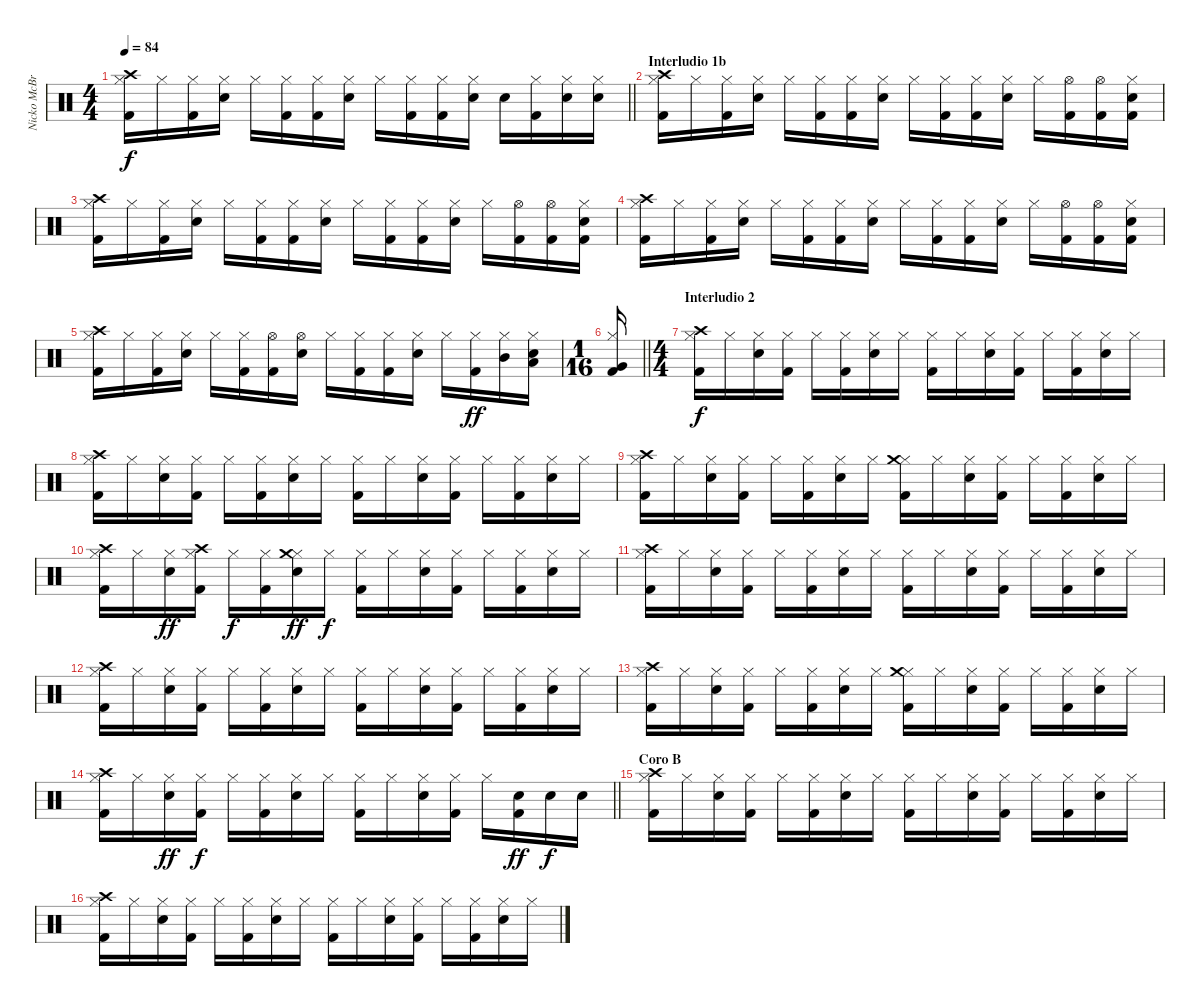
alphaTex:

\track ("Nicko McBrain" "Nicko McBr") {instrument percussion}
\staff {score}
\articulation defaults
\ts (4 4)
\tempo 84
\clef neutral
\barLineRight lightlight
\ks c
("Kick (hit) 2" "Hi-Hat (closed)" "Crash high (hit)").16{dy f} "Hi-Hat (closed)".16 ("Kick (hit) 2" "Hi-Hat (closed)").16 ("Snare (hit) 2" "Hi-Hat (closed)").16 "Hi-Hat (closed)".16 ("Kick (hit) 2" "Hi-Hat (closed)").16 ("Kick (hit) 2" "Hi-Hat (closed)").16 ("Snare (hit) 2" "Hi-Hat (closed)").16 "Hi-Hat (closed)".16 ("Kick (hit) 2" "Hi-Hat (closed)").16 ("Kick (hit) 2" "Hi-Hat (closed)").16 ("Snare (hit) 2" "Hi-Hat (closed)").16 "Snare (hit) 2".16 ("Kick (hit) 2" "Hi-Hat (closed)").16 ("Snare (hit) 2" "Hi-Hat (closed)").16 ("Snare (hit) 2" "Hi-Hat (closed)").16 |
\section ("" "Interludio 1b")
("Kick (hit) 2" "Hi-Hat (closed)" "Crash high (hit)").16 "Hi-Hat (closed)".16 ("Kick (hit) 2" "Hi-Hat (closed)").16 ("Snare (hit) 2" "Hi-Hat (closed)").16 "Hi-Hat (closed)".16 ("Kick (hit) 2" "Hi-Hat (closed)").16 ("Kick (hit) 2" "Hi-Hat (closed)").16 ("Snare (hit) 2" "Hi-Hat (closed)").16 "Hi-Hat (closed)".16 ("Kick (hit) 2" "Hi-Hat (closed)").16 ("Kick (hit) 2" "Hi-Hat (closed)").16 ("Snare (hit) 2" "Hi-Hat (closed)").16 "Hi-Hat (closed)".16 ("Kick (hit) 2" "Hi-Hat (open)").16 ("Kick (hit) 2" "Hi-Hat (open)").16 ("Snare (hit) 2" "Hi-Hat (closed)" "Kick (hit) 2").16 |
("Kick (hit) 2" "Hi-Hat (closed)" "Crash high (hit)").16 "Hi-Hat (closed)".16 ("Kick (hit) 2" "Hi-Hat (closed)").16 ("Snare (hit) 2" "Hi-Hat (closed)").16 "Hi-Hat (closed)".16 ("Kick (hit) 2" "Hi-Hat (closed)").16 ("Kick (hit) 2" "Hi-Hat (closed)").16 ("Snare (hit) 2" "Hi-Hat (closed)").16 "Hi-Hat (closed)".16 ("Kick (hit) 2" "Hi-Hat (closed)").16 ("Kick (hit) 2" "Hi-Hat (closed)").16 ("Snare (hit) 2" "Hi-Hat (closed)").16 "Hi-Hat (closed)".16 ("Kick (hit) 2" "Hi-Hat (open)").16 ("Kick (hit) 2" "Hi-Hat (open)").16 ("Snare (hit) 2" "Hi-Hat (closed)" "Kick (hit) 2").16 |
("Kick (hit) 2" "Hi-Hat (closed)" "Crash high (hit)").16 "Hi-Hat (closed)".16 ("Kick (hit) 2" "Hi-Hat (closed)").16 ("Snare (hit) 2" "Hi-Hat (closed)").16 "Hi-Hat (closed)".16 ("Kick (hit) 2" "Hi-Hat (closed)").16 ("Kick (hit) 2" "Hi-Hat (closed)").16 ("Snare (hit) 2" "Hi-Hat (closed)").16 "Hi-Hat (closed)".16 ("Kick (hit) 2" "Hi-Hat (closed)").16 ("Kick (hit) 2" "Hi-Hat (closed)").16 ("Snare (hit) 2" "Hi-Hat (closed)").16 "Hi-Hat (closed)".16 ("Kick (hit) 2" "Hi-Hat (open)").16 ("Kick (hit) 2" "Hi-Hat (open)").16 ("Snare (hit) 2" "Hi-Hat (closed)" "Kick (hit) 2").16 |
("Kick (hit) 2" "Hi-Hat (closed)" "Crash high (hit)").16 "Hi-Hat (closed)".16 ("Kick (hit) 2" "Hi-Hat (closed)").16 ("Snare (hit) 2" "Hi-Hat (closed)").16 "Hi-Hat (closed)".16 ("Kick (hit) 2" "Hi-Hat (closed)").16 ("Kick (hit) 2" "Hi-Hat (open)").16 ("Snare (hit) 2" "Hi-Hat (open)").16 "Hi-Hat (closed)".16 ("Kick (hit) 2" "Hi-Hat (closed)").16 ("Kick (hit) 2" "Hi-Hat (closed)").16 ("Snare (hit) 2" "Hi-Hat (closed)").16 "Hi-Hat (closed)".16 ("Kick (hit) 2" "Hi-Hat (closed)").16{dy ff} ("Hi-Hat (closed)" "Mid Tom (hit)").16 ("Snare (hit) 2" "Hi-Hat (closed)" "Low Tom (hit)").16 |
\ts (1 16)
\barLineRight lightlight
("Hi-Hat (closed)" "Kick (hit) 2" "Very Low Tom (hit)").16 |
\ts (4 4)
\section ("" "Interludio 2")
("Kick (hit) 2" "Hi-Hat (closed)" "Crash high (hit)").16{dy f} "Hi-Hat (closed)".16 ("Snare (hit) 2" "Hi-Hat (closed)").16 ("Kick (hit) 2" "Hi-Hat (closed)").16 "Hi-Hat (closed)".16 ("Kick (hit) 2" "Hi-Hat (closed)").16 ("Snare (hit) 2" "Hi-Hat (closed)").16 "Hi-Hat (closed)".16 ("Kick (hit) 2" "Hi-Hat (closed)").16 "Hi-Hat (closed)".16 ("Snare (hit) 2" "Hi-Hat (closed)").16 ("Kick (hit) 2" "Hi-Hat (closed)").16 "Hi-Hat (closed)".16 ("Kick (hit) 2" "Hi-Hat (closed)").16 ("Snare (hit) 2" "Hi-Hat (closed)").16 "Hi-Hat (closed)".16 |
("Kick (hit) 2" "Hi-Hat (closed)" "Crash high (hit)").16 "Hi-Hat (closed)".16 ("Snare (hit) 2" "Hi-Hat (closed)").16 ("Kick (hit) 2" "Hi-Hat (closed)").16 "Hi-Hat (closed)".16 ("Kick (hit) 2" "Hi-Hat (closed)").16 ("Snare (hit) 2" "Hi-Hat (closed)").16 "Hi-Hat (closed)".16 ("Kick (hit) 2" "Hi-Hat (closed)").16 "Hi-Hat (closed)".16 ("Snare (hit) 2" "Hi-Hat (closed)").16 ("Kick (hit) 2" "Hi-Hat (closed)").16 "Hi-Hat (closed)".16 ("Kick (hit) 2" "Hi-Hat (closed)").16 ("Snare (hit) 2" "Hi-Hat (closed)").16 "Hi-Hat (closed)".16 |
("Kick (hit) 2" "Hi-Hat (closed)" "Crash high (hit)").16 "Hi-Hat (closed)".16 ("Snare (hit) 2" "Hi-Hat (closed)").16 ("Kick (hit) 2" "Hi-Hat (closed)").16 "Hi-Hat (closed)".16 ("Kick (hit) 2" "Hi-Hat (closed)").16 ("Snare (hit) 2" "Hi-Hat (closed)").16 "Hi-Hat (closed)".16 ("Kick (hit) 2" "Hi-Hat (closed)" "Crash medium (hit)").16 "Hi-Hat (closed)".16 ("Snare (hit) 2" "Hi-Hat (closed)").16 ("Kick (hit) 2" "Hi-Hat (closed)").16 "Hi-Hat (closed)".16 ("Kick (hit) 2" "Hi-Hat (closed)").16 ("Snare (hit) 2" "Hi-Hat (closed)").16 "Hi-Hat (closed)".16 |
("Kick (hit) 2" "Hi-Hat (closed)" "Crash high (hit)").16 "Hi-Hat (closed)".16 ("Snare (hit) 2" "Hi-Hat (closed)").16{dy ff} ("Kick (hit) 2" "Hi-Hat (closed)" "Crash high (hit)").16 "Hi-Hat (closed)".16{dy f} ("Kick (hit) 2" "Hi-Hat (closed)").16 ("Snare (hit) 2" "Hi-Hat (closed)" "Crash medium (hit)").16{dy ff} "Hi-Hat (closed)".16{dy f} ("Kick (hit) 2" "Hi-Hat (closed)").16 "Hi-Hat (closed)".16 ("Snare (hit) 2" "Hi-Hat (closed)").16 ("Kick (hit) 2" "Hi-Hat (closed)").16 "Hi-Hat (closed)".16 ("Kick (hit) 2" "Hi-Hat (closed)").16 ("Snare (hit) 2" "Hi-Hat (closed)").16 "Hi-Hat (closed)".16 |
("Kick (hit) 2" "Hi-Hat (closed)" "Crash high (hit)").16 "Hi-Hat (closed)".16 ("Snare (hit) 2" "Hi-Hat (closed)").16 ("Kick (hit) 2" "Hi-Hat (closed)").16 "Hi-Hat (closed)".16 ("Kick (hit) 2" "Hi-Hat (closed)").16 ("Snare (hit) 2" "Hi-Hat (closed)").16 "Hi-Hat (closed)".16 ("Kick (hit) 2" "Hi-Hat (closed)").16 "Hi-Hat (closed)".16 ("Snare (hit) 2" "Hi-Hat (closed)").16 ("Kick (hit) 2" "Hi-Hat (closed)").16 "Hi-Hat (closed)".16 ("Kick (hit) 2" "Hi-Hat (closed)").16 ("Snare (hit) 2" "Hi-Hat (closed)").16 "Hi-Hat (closed)".16 |
("Kick (hit) 2" "Hi-Hat (closed)" "Crash high (hit)").16 "Hi-Hat (closed)".16 ("Snare (hit) 2" "Hi-Hat (closed)").16 ("Kick (hit) 2" "Hi-Hat (closed)").16 "Hi-Hat (closed)".16 ("Kick (hit) 2" "Hi-Hat (closed)").16 ("Snare (hit) 2" "Hi-Hat (closed)").16 "Hi-Hat (closed)".16 ("Kick (hit) 2" "Hi-Hat (closed)").16 "Hi-Hat (closed)".16 ("Snare (hit) 2" "Hi-Hat (closed)").16 ("Kick (hit) 2" "Hi-Hat (closed)").16 "Hi-Hat (closed)".16 ("Kick (hit) 2" "Hi-Hat (closed)").16 ("Snare (hit) 2" "Hi-Hat (closed)").16 "Hi-Hat (closed)".16 |
("Kick (hit) 2" "Hi-Hat (closed)" "Crash high (hit)").16 "Hi-Hat (closed)".16 ("Snare (hit) 2" "Hi-Hat (closed)").16 ("Kick (hit) 2" "Hi-Hat (closed)").16 "Hi-Hat (closed)".16 ("Kick (hit) 2" "Hi-Hat (closed)").16 ("Snare (hit) 2" "Hi-Hat (closed)").16 "Hi-Hat (closed)".16 ("Kick (hit) 2" "Hi-Hat (closed)" "Crash medium (hit)").16 "Hi-Hat (closed)".16 ("Snare (hit) 2" "Hi-Hat (closed)").16 ("Kick (hit) 2" "Hi-Hat (closed)").16 "Hi-Hat (closed)".16 ("Kick (hit) 2" "Hi-Hat (closed)").16 ("Snare (hit) 2" "Hi-Hat (closed)").16 "Hi-Hat (closed)".16 |
\barLineRight lightlight
("Kick (hit) 2" "Hi-Hat (closed)" "Crash high (hit)").16 "Hi-Hat (closed)".16 ("Snare (hit) 2" "Hi-Hat (closed)").16{dy ff} ("Kick (hit) 2" "Hi-Hat (closed)").16{dy f} "Hi-Hat (closed)".16 ("Kick (hit) 2" "Hi-Hat (closed)").16 ("Snare (hit) 2" "Hi-Hat (closed)").16 "Hi-Hat (closed)".16 ("Kick (hit) 2" "Hi-Hat (closed)").16 "Hi-Hat (closed)".16 ("Snare (hit) 2" "Hi-Hat (closed)").16 ("Kick (hit) 2" "Hi-Hat (closed)").16 "Hi-Hat (closed)".16 ("Kick (hit) 2" "Snare (hit) 2").16{dy ff} "Snare (hit) 2".16{dy f} "Snare (hit) 2".16 |
\section ("" "Coro B")
("Kick (hit) 2" "Hi-Hat (closed)" "Crash high (hit)").16 "Hi-Hat (closed)".16 ("Snare (hit) 2" "Hi-Hat (closed)").16 ("Kick (hit) 2" "Hi-Hat (closed)").16 "Hi-Hat (closed)".16 ("Kick (hit) 2" "Hi-Hat (closed)").16 ("Snare (hit) 2" "Hi-Hat (closed)").16 "Hi-Hat (closed)".16 ("Kick (hit) 2" "Hi-Hat (closed)").16 "Hi-Hat (closed)".16 ("Snare (hit) 2" "Hi-Hat (closed)").16 ("Kick (hit) 2" "Hi-Hat (closed)").16 "Hi-Hat (closed)".16 ("Kick (hit) 2" "Hi-Hat (closed)").16 ("Snare (hit) 2" "Hi-Hat (closed)").16 "Hi-Hat (closed)".16 |
("Kick (hit) 2" "Hi-Hat (closed)" "Crash high (hit)").16 "Hi-Hat (closed)".16 ("Snare (hit) 2" "Hi-Hat (closed)").16 ("Kick (hit) 2" "Hi-Hat (closed)").16 "Hi-Hat (closed)".16 ("Kick (hit) 2" "Hi-Hat (closed)").16 ("Snare (hit) 2" "Hi-Hat (closed)").16 "Hi-Hat (closed)".16 ("Kick (hit) 2" "Hi-Hat (closed)").16 "Hi-Hat (closed)".16 ("Snare (hit) 2" "Hi-Hat (closed)").16 ("Kick (hit) 2" "Hi-Hat (closed)").16 "Hi-Hat (closed)".16 ("Kick (hit) 2" "Hi-Hat (closed)").16 ("Snare (hit) 2" "Hi-Hat (closed)").16 "Hi-Hat (closed)".16
